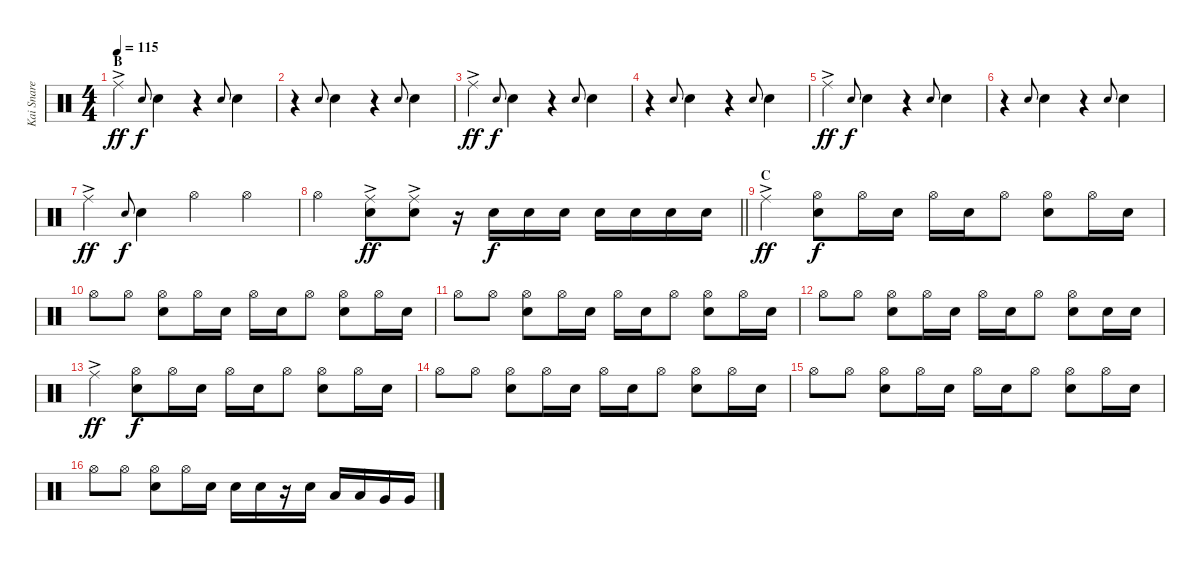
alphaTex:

\track ("Kai Snare" "Kai Snare") {instrument percussion}
\staff {score}
\articulation defaults
\ts (4 4)
\section ("" "B")
\tempo 115
\clef neutral
\ks c "Ride (middle)"{ac}.4{dy ff} "Snare (hit) 2".8{gr onbeat dy f} "Snare (hit) 2".4
r.4 "Snare (hit) 2".8{gr onbeat} "Snare (hit) 2".4 |
r.4 "Snare (hit) 2".8{gr onbeat} "Snare (hit) 2".4 r.4 "Snare (hit) 2".8{gr onbeat} "Snare (hit) 2".4 |
"Ride (middle)"{ac}.4{dy ff} "Snare (hit) 2".8{gr onbeat dy f} "Snare (hit) 2".4 r.4 "Snare (hit) 2".8{gr onbeat} "Snare (hit) 2".4 |
r.4 "Snare (hit) 2".8{gr onbeat} "Snare (hit) 2".4 r.4 "Snare (hit) 2".8{gr onbeat} "Snare (hit) 2".4 |
"Ride (middle)"{ac}.4{dy ff} "Snare (hit) 2".8{gr onbeat dy f} "Snare (hit) 2".4 r.4 "Snare (hit) 2".8{gr onbeat} "Snare (hit) 2".4 |
r.4 "Snare (hit) 2".8{gr onbeat} "Snare (hit) 2".4 r.4 "Snare (hit) 2".8{gr onbeat} "Snare (hit) 2".4 |
"Ride (middle)"{ac}.4{dy ff} "Snare (hit) 2".8{gr onbeat dy f} "Snare (hit) 2".4 "Hi-Hat (open)".4 "Hi-Hat (open)".4 |
\barLineRight lightlight "Hi-Hat (open)".4
("Ride (middle)"{ac} "Snare (hit) 2").8{dy ff} ("Ride (middle)"{ac} "Snare (hit) 2").8 r.16 "Snare (hit) 2".16{dy f} "Snare (hit) 2".16 "Snare (hit) 2".16 "Snare (hit) 2".16 "Snare (hit) 2".16 "Snare (hit) 2".16 "Snare (hit) 2".16 |
\section ("" "C")
"Ride (middle)"{ac}.4{dy ff} ("Hi-Hat (open)" "Snare (hit) 2").8{dy f} "Hi-Hat (open)".16 "Snare (hit) 2".16 "Hi-Hat (open)".16 "Snare (hit) 2".16 "Hi-Hat (open)".8 ("Hi-Hat (open)" "Snare (hit) 2").8 "Hi-Hat (open)".16 "Snare (hit) 2".16 |
"Hi-Hat (open)".8 "Hi-Hat (open)".8 ("Hi-Hat (open)" "Snare (hit) 2").8 "Hi-Hat (open)".16 "Snare (hit) 2".16 "Hi-Hat (open)".16 "Snare (hit) 2".16 "Hi-Hat (open)".8 ("Hi-Hat (open)" "Snare (hit) 2").8 "Hi-Hat (open)".16 "Snare (hit) 2".16 |
"Hi-Hat (open)".8 "Hi-Hat (open)".8 ("Hi-Hat (open)" "Snare (hit) 2").8 "Hi-Hat (open)".16 "Snare (hit) 2".16 "Hi-Hat (open)".16 "Snare (hit) 2".16 "Hi-Hat (open)".8 ("Hi-Hat (open)" "Snare (hit) 2").8 "Hi-Hat (open)".16 "Snare (hit) 2".16 |
"Hi-Hat (open)".8 "Hi-Hat (open)".8 ("Hi-Hat (open)" "Snare (hit) 2").8 "Hi-Hat (open)".16 "Snare (hit) 2".16 "Hi-Hat (open)".16 "Snare (hit) 2".16 "Hi-Hat (open)".8 ("Hi-Hat (open)" "Snare (hit) 2").8 "Snare (hit) 2".16 "Snare (hit) 2".16 |
"Ride (middle)"{ac}.4{dy ff} ("Hi-Hat (open)" "Snare (hit) 2").8{dy f} "Hi-Hat (open)".16 "Snare (hit) 2".16 "Hi-Hat (open)".16 "Snare (hit) 2".16 "Hi-Hat (open)".8 ("Hi-Hat (open)" "Snare (hit) 2").8 "Hi-Hat (open)".16 "Snare (hit) 2".16 |
"Hi-Hat (open)".8 "Hi-Hat (open)".8 ("Hi-Hat (open)" "Snare (hit) 2").8 "Hi-Hat (open)".16 "Snare (hit) 2".16 "Hi-Hat (open)".16 "Snare (hit) 2".16 "Hi-Hat (open)".8 ("Hi-Hat (open)" "Snare (hit) 2").8 "Hi-Hat (open)".16 "Snare (hit) 2".16 |
"Hi-Hat (open)".8 "Hi-Hat (open)".8 ("Hi-Hat (open)" "Snare (hit) 2").8 "Hi-Hat (open)".16 "Snare (hit) 2".16 "Hi-Hat (open)".16 "Snare (hit) 2".16 "Hi-Hat (open)".8 ("Hi-Hat (open)" "Snare (hit) 2").8 "Hi-Hat (open)".16 "Snare (hit) 2".16 |
"Hi-Hat (open)".8 "Hi-Hat (open)".8 ("Hi-Hat (open)" "Snare (hit) 2").8 "Hi-Hat (open)".16 "Snare (hit) 2".16 "Snare (hit) 2".16 "Snare (hit) 2".16 r.16 "Snare (hit) 2".16 "Low Tom (hit)".16 "Low Tom (hit)".16 "Very Low Tom (hit)".16 "Very Low Tom (hit)".16
